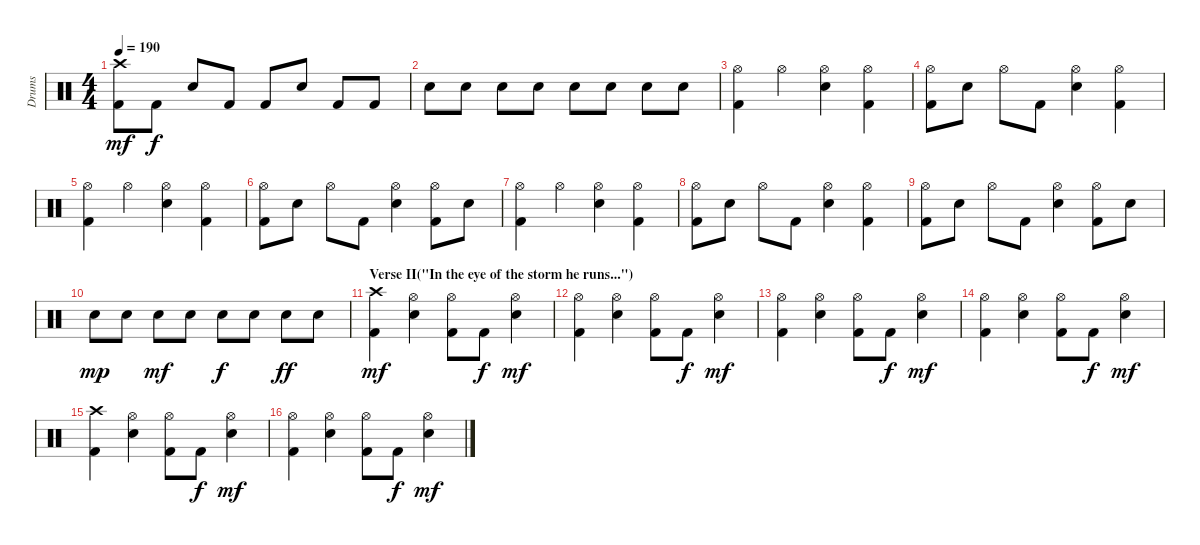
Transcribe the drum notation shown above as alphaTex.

\track ("Drums" "Drums") {instrument percussion}
\staff {score}
\articulation defaults
\ts (4 4)
\tempo 190
\clef neutral
\ks c
("Crash high (hit)" "Kick (hit) 2").8{dy mf} "Kick (hit) 2".8{dy f} "Snare (hit) 2".8 "Kick (hit) 2".8 "Kick (hit) 2".8 "Snare (hit) 2".8 "Kick (hit) 2".8 "Kick (hit) 2".8 |
"Snare (hit) 2".8 "Snare (hit) 2".8 "Snare (hit) 2".8 "Snare (hit) 2".8 "Snare (hit) 2".8 "Snare (hit) 2".8 "Snare (hit) 2".8 "Snare (hit) 2".8 |
("Hi-Hat (open)" "Kick (hit) 2").4 "Hi-Hat (open)".4 ("Hi-Hat (open)" "Snare (hit) 2").4 ("Hi-Hat (open)" "Kick (hit) 2").4 |
("Hi-Hat (open)" "Kick (hit) 2").8 "Snare (hit) 2".8 "Hi-Hat (open)".8 "Kick (hit) 2".8 ("Hi-Hat (open)" "Snare (hit) 2").4 ("Hi-Hat (open)" "Kick (hit) 2").4 |
("Hi-Hat (open)" "Kick (hit) 2").4 "Hi-Hat (open)".4 ("Hi-Hat (open)" "Snare (hit) 2").4 ("Hi-Hat (open)" "Kick (hit) 2").4 |
("Hi-Hat (open)" "Kick (hit) 2").8 "Snare (hit) 2".8 "Hi-Hat (open)".8 "Kick (hit) 2".8 ("Hi-Hat (open)" "Snare (hit) 2").4 ("Hi-Hat (open)" "Kick (hit) 2").8 "Snare (hit) 2".8 |
("Hi-Hat (open)" "Kick (hit) 2").4 "Hi-Hat (open)".4 ("Hi-Hat (open)" "Snare (hit) 2").4 ("Hi-Hat (open)" "Kick (hit) 2").4 |
("Hi-Hat (open)" "Kick (hit) 2").8 "Snare (hit) 2".8 "Hi-Hat (open)".8 "Kick (hit) 2".8 ("Hi-Hat (open)" "Snare (hit) 2").4 ("Hi-Hat (open)" "Kick (hit) 2").4 |
("Hi-Hat (open)" "Kick (hit) 2").8 "Snare (hit) 2".8 "Hi-Hat (open)".8 "Kick (hit) 2".8 ("Hi-Hat (open)" "Snare (hit) 2").4 ("Hi-Hat (open)" "Kick (hit) 2").8 "Snare (hit) 2".8 |
"Snare (hit) 2".8{dy mp} "Snare (hit) 2".8 "Snare (hit) 2".8{dy mf} "Snare (hit) 2".8 "Snare (hit) 2".8{dy f} "Snare (hit) 2".8 "Snare (hit) 2".8{dy ff} "Snare (hit) 2".8 |
\section ("" "Verse II(\"In the eye of the storm he runs...\")")
("Crash high (hit)" "Kick (hit) 2").4{dy mf} ("Hi-Hat (open)" "Snare (hit) 2").4 ("Hi-Hat (open)" "Kick (hit) 2").8 "Kick (hit) 2".8{dy f} ("Hi-Hat (open)" "Snare (hit) 2").4{dy mf} |
("Hi-Hat (open)" "Kick (hit) 2").4 ("Hi-Hat (open)" "Snare (hit) 2").4 ("Hi-Hat (open)" "Kick (hit) 2").8 "Kick (hit) 2".8{dy f} ("Hi-Hat (open)" "Snare (hit) 2").4{dy mf} |
("Hi-Hat (open)" "Kick (hit) 2").4 ("Hi-Hat (open)" "Snare (hit) 2").4 ("Hi-Hat (open)" "Kick (hit) 2").8 "Kick (hit) 2".8{dy f} ("Hi-Hat (open)" "Snare (hit) 2").4{dy mf} |
("Hi-Hat (open)" "Kick (hit) 2").4 ("Hi-Hat (open)" "Snare (hit) 2").4 ("Hi-Hat (open)" "Kick (hit) 2").8 "Kick (hit) 2".8{dy f} ("Hi-Hat (open)" "Snare (hit) 2").4{dy mf} |
("Crash high (hit)" "Kick (hit) 2").4 ("Hi-Hat (open)" "Snare (hit) 2").4 ("Hi-Hat (open)" "Kick (hit) 2").8 "Kick (hit) 2".8{dy f} ("Hi-Hat (open)" "Snare (hit) 2").4{dy mf} |
("Hi-Hat (open)" "Kick (hit) 2").4 ("Hi-Hat (open)" "Snare (hit) 2").4 ("Hi-Hat (open)" "Kick (hit) 2").8 "Kick (hit) 2".8{dy f} ("Hi-Hat (open)" "Snare (hit) 2").4{dy mf}
